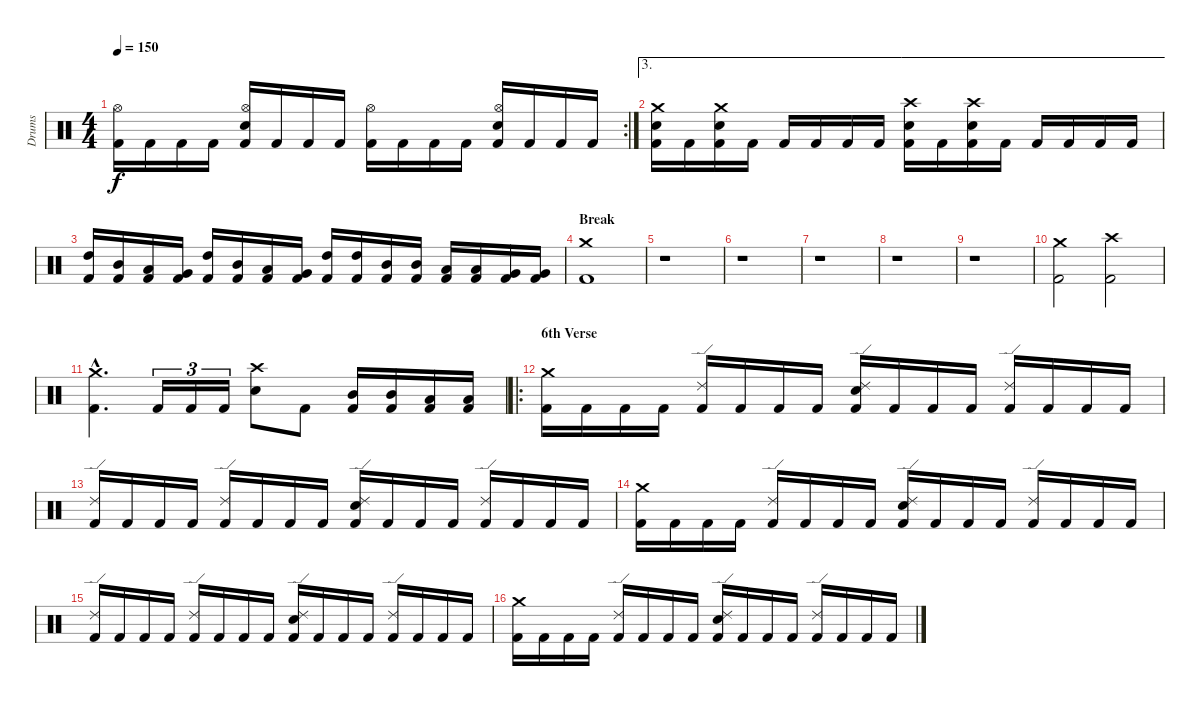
\track ("Drums" "Drums") {instrument percussion}
\staff {score}
\articulation defaults
\rc 2
\ts (4 4)
\tempo 150
\clef neutral
\ks c
("Kick (hit) 2" "Hi-Hat (open)").16{dy f} "Kick (hit) 2".16 "Kick (hit) 2".16 "Kick (hit) 2".16 ("Kick (hit) 2" "Electric Snare (hit)" "Hi-Hat (open)").16 "Kick (hit) 2".16 "Kick (hit) 2".16 "Kick (hit) 2".16 ("Kick (hit) 2" "Hi-Hat (open)").16 "Kick (hit) 2".16 "Kick (hit) 2".16 "Kick (hit) 2".16 ("Kick (hit) 2" "Electric Snare (hit)" "Hi-Hat (open)").16 "Kick (hit) 2".16 "Kick (hit) 2".16 "Kick (hit) 2".16 |
\ae 3
("Kick (hit) 2" "Electric Snare (hit)" "Crash medium (hit)").16 "Kick (hit) 2".16 ("Kick (hit) 2" "Electric Snare (hit)" "Crash medium (hit)").16 "Kick (hit) 2".16 "Kick (hit) 2".16 "Kick (hit) 2".16 "Kick (hit) 2".16 "Kick (hit) 2".16 ("Kick (hit) 2" "Electric Snare (hit)" "Crash high (hit)").16 "Kick (hit) 2".16 ("Kick (hit) 2" "Electric Snare (hit)" "Crash high (hit)").16 "Kick (hit) 2".16 "Kick (hit) 2".16 "Kick (hit) 2".16 "Kick (hit) 2".16 "Kick (hit) 2".16 |
("Kick (hit) 2" "High Tom (hit)").16 ("Kick (hit) 2" "Mid Tom (hit)").16 ("Kick (hit) 2" "Low Tom (hit)").16 ("Kick (hit) 2" "Very Low Tom (hit)").16 ("Kick (hit) 2" "High Tom (hit)").16 ("Kick (hit) 2" "Mid Tom (hit)").16 ("Kick (hit) 2" "Low Tom (hit)").16 ("Kick (hit) 2" "Very Low Tom (hit)").16 ("Kick (hit) 2" "High Tom (hit)").16 ("Kick (hit) 2" "High Tom (hit)").16 ("Kick (hit) 2" "Mid Tom (hit)").16 ("Kick (hit) 2" "Mid Tom (hit)").16 ("Kick (hit) 2" "Low Tom (hit)").16 ("Kick (hit) 2" "Low Tom (hit)").16 ("Kick (hit) 2" "Very Low Tom (hit)").16 ("Kick (hit) 2" "Very Low Tom (hit)").16 |
\section ("" "Break")
("Kick (hit) 2" "Crash medium (hit)").1 |
r.1 |
r.1 |
r.1 |
r.1 |
r.1 |
("Kick (hit) 2" "Crash medium (hit)").2 ("Kick (hit) 2" "Crash high (hit)").2 |
("Kick (hit) 2"{hac} "Crash medium (hit)"{hac}).4{d} "Kick (hit) 2".16{tu (3 2)} "Kick (hit) 2".16{tu (3 2)} "Kick (hit) 2".16{tu (3 2)} ("Electric Snare (hit)" "Crash high (hit)").8 "Kick (hit) 2".8 ("Kick (hit) 2" "Mid Tom (hit)").16 ("Kick (hit) 2" "Mid Tom (hit)").16 ("Kick (hit) 2" "Low Tom (hit)").16 ("Kick (hit) 2" "Low Tom (hit)").16 |
\ro
\section ("" "6th Verse")
("Kick (hit) 2" "Crash medium (hit)").16 "Kick (hit) 2".16 "Kick (hit) 2".16 "Kick (hit) 2".16 ("Kick (hit) 2" "Ride (edge) 2").16 "Kick (hit) 2".16 "Kick (hit) 2".16 "Kick (hit) 2".16 ("Kick (hit) 2" "Electric Snare (hit)" "Ride (edge) 2").16 "Kick (hit) 2".16 "Kick (hit) 2".16 "Kick (hit) 2".16 ("Kick (hit) 2" "Ride (edge) 2").16 "Kick (hit) 2".16 "Kick (hit) 2".16 "Kick (hit) 2".16 |
("Kick (hit) 2" "Ride (edge) 2").16 "Kick (hit) 2".16 "Kick (hit) 2".16 "Kick (hit) 2".16 ("Kick (hit) 2" "Ride (edge) 2").16 "Kick (hit) 2".16 "Kick (hit) 2".16 "Kick (hit) 2".16 ("Kick (hit) 2" "Electric Snare (hit)" "Ride (edge) 2").16 "Kick (hit) 2".16 "Kick (hit) 2".16 "Kick (hit) 2".16 ("Kick (hit) 2" "Ride (edge) 2").16 "Kick (hit) 2".16 "Kick (hit) 2".16 "Kick (hit) 2".16 |
("Kick (hit) 2" "Crash medium (hit)").16 "Kick (hit) 2".16 "Kick (hit) 2".16 "Kick (hit) 2".16 ("Kick (hit) 2" "Ride (edge) 2").16 "Kick (hit) 2".16 "Kick (hit) 2".16 "Kick (hit) 2".16 ("Kick (hit) 2" "Electric Snare (hit)" "Ride (edge) 2").16 "Kick (hit) 2".16 "Kick (hit) 2".16 "Kick (hit) 2".16 ("Kick (hit) 2" "Ride (edge) 2").16 "Kick (hit) 2".16 "Kick (hit) 2".16 "Kick (hit) 2".16 |
("Kick (hit) 2" "Ride (edge) 2").16 "Kick (hit) 2".16 "Kick (hit) 2".16 "Kick (hit) 2".16 ("Kick (hit) 2" "Ride (edge) 2").16 "Kick (hit) 2".16 "Kick (hit) 2".16 "Kick (hit) 2".16 ("Kick (hit) 2" "Electric Snare (hit)" "Ride (edge) 2").16 "Kick (hit) 2".16 "Kick (hit) 2".16 "Kick (hit) 2".16 ("Kick (hit) 2" "Ride (edge) 2").16 "Kick (hit) 2".16 "Kick (hit) 2".16 "Kick (hit) 2".16 |
("Kick (hit) 2" "Crash medium (hit)").16 "Kick (hit) 2".16 "Kick (hit) 2".16 "Kick (hit) 2".16 ("Kick (hit) 2" "Ride (edge) 2").16 "Kick (hit) 2".16 "Kick (hit) 2".16 "Kick (hit) 2".16 ("Kick (hit) 2" "Electric Snare (hit)" "Ride (edge) 2").16 "Kick (hit) 2".16 "Kick (hit) 2".16 "Kick (hit) 2".16 ("Kick (hit) 2" "Ride (edge) 2").16 "Kick (hit) 2".16 "Kick (hit) 2".16 "Kick (hit) 2".16
